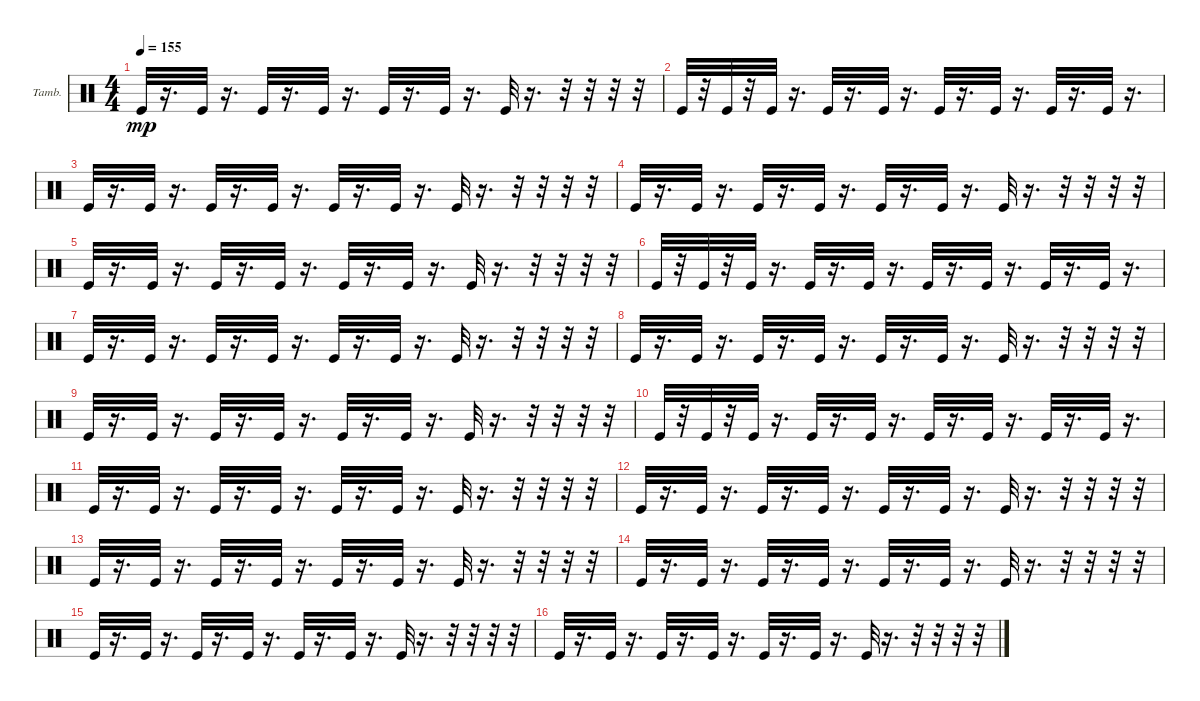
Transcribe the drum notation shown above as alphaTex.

\bracketExtendMode groupsimilarinstruments
\firstSystemTrackNameOrientation horizontal
\otherSystemsTrackNameOrientation horizontal
\track ("Е. Кулаков" "Tamb.") {instrument percussion}
\staff {score}
\articulation defaults
\ts (4 4)
\tempo 155
\clef neutral
\ks c "Kick (hit)".32{dy mp}
r.16{d} "Kick (hit)".32 r.16{d} "Kick (hit)".32 r.16{d} "Kick (hit)".32 r.16{d} "Kick (hit)".32 r.16{d} "Kick (hit)".32 r.16{d} "Kick (hit)".32 r.16{d} r.32 r.32 r.32 r.32 |
"Kick (hit)".32 r.32 "Kick (hit)".32 r.32 "Kick (hit)".32 r.16{d} "Kick (hit)".32 r.16{d} "Kick (hit)".32 r.16{d} "Kick (hit)".32 r.16{d} "Kick (hit)".32 r.16{d} "Kick (hit)".32 r.16{d} "Kick (hit)".32 r.16{d} |
"Kick (hit)".32 r.16{d} "Kick (hit)".32 r.16{d} "Kick (hit)".32 r.16{d} "Kick (hit)".32 r.16{d} "Kick (hit)".32 r.16{d} "Kick (hit)".32 r.16{d} "Kick (hit)".32 r.16{d} r.32 r.32 r.32 r.32 |
"Kick (hit)".32 r.16{d} "Kick (hit)".32 r.16{d} "Kick (hit)".32 r.16{d} "Kick (hit)".32 r.16{d} "Kick (hit)".32 r.16{d} "Kick (hit)".32 r.16{d} "Kick (hit)".32 r.16{d} r.32 r.32 r.32 r.32 |
"Kick (hit)".32 r.16{d} "Kick (hit)".32 r.16{d} "Kick (hit)".32 r.16{d} "Kick (hit)".32 r.16{d} "Kick (hit)".32 r.16{d} "Kick (hit)".32 r.16{d} "Kick (hit)".32 r.16{d} r.32 r.32 r.32 r.32 |
"Kick (hit)".32 r.32 "Kick (hit)".32 r.32 "Kick (hit)".32 r.16{d} "Kick (hit)".32 r.16{d} "Kick (hit)".32 r.16{d} "Kick (hit)".32 r.16{d} "Kick (hit)".32 r.16{d} "Kick (hit)".32 r.16{d} "Kick (hit)".32 r.16{d} |
"Kick (hit)".32 r.16{d} "Kick (hit)".32 r.16{d} "Kick (hit)".32 r.16{d} "Kick (hit)".32 r.16{d} "Kick (hit)".32 r.16{d} "Kick (hit)".32 r.16{d} "Kick (hit)".32 r.16{d} r.32 r.32 r.32 r.32 |
"Kick (hit)".32 r.16{d} "Kick (hit)".32 r.16{d} "Kick (hit)".32 r.16{d} "Kick (hit)".32 r.16{d} "Kick (hit)".32 r.16{d} "Kick (hit)".32 r.16{d} "Kick (hit)".32 r.16{d} r.32 r.32 r.32 r.32 |
"Kick (hit)".32 r.16{d} "Kick (hit)".32 r.16{d} "Kick (hit)".32 r.16{d} "Kick (hit)".32 r.16{d} "Kick (hit)".32 r.16{d} "Kick (hit)".32 r.16{d} "Kick (hit)".32 r.16{d} r.32 r.32 r.32 r.32 |
"Kick (hit)".32 r.32 "Kick (hit)".32 r.32 "Kick (hit)".32 r.16{d} "Kick (hit)".32 r.16{d} "Kick (hit)".32 r.16{d} "Kick (hit)".32 r.16{d} "Kick (hit)".32 r.16{d} "Kick (hit)".32 r.16{d} "Kick (hit)".32 r.16{d} |
"Kick (hit)".32 r.16{d} "Kick (hit)".32 r.16{d} "Kick (hit)".32 r.16{d} "Kick (hit)".32 r.16{d} "Kick (hit)".32 r.16{d} "Kick (hit)".32 r.16{d} "Kick (hit)".32 r.16{d} r.32 r.32 r.32 r.32 |
"Kick (hit)".32 r.16{d} "Kick (hit)".32 r.16{d} "Kick (hit)".32 r.16{d} "Kick (hit)".32 r.16{d} "Kick (hit)".32 r.16{d} "Kick (hit)".32 r.16{d} "Kick (hit)".32 r.16{d} r.32 r.32 r.32 r.32 |
"Kick (hit)".32 r.16{d} "Kick (hit)".32 r.16{d} "Kick (hit)".32 r.16{d} "Kick (hit)".32 r.16{d} "Kick (hit)".32 r.16{d} "Kick (hit)".32 r.16{d} "Kick (hit)".32 r.16{d} r.32 r.32 r.32 r.32 |
"Kick (hit)".32 r.16{d} "Kick (hit)".32 r.16{d} "Kick (hit)".32 r.16{d} "Kick (hit)".32 r.16{d} "Kick (hit)".32 r.16{d} "Kick (hit)".32 r.16{d} "Kick (hit)".32 r.16{d} r.32 r.32 r.32 r.32 |
"Kick (hit)".32 r.16{d} "Kick (hit)".32 r.16{d} "Kick (hit)".32 r.16{d} "Kick (hit)".32 r.16{d} "Kick (hit)".32 r.16{d} "Kick (hit)".32 r.16{d} "Kick (hit)".32 r.16{d} r.32 r.32 r.32 r.32 |
"Kick (hit)".32 r.16{d} "Kick (hit)".32 r.16{d} "Kick (hit)".32 r.16{d} "Kick (hit)".32 r.16{d} "Kick (hit)".32 r.16{d} "Kick (hit)".32 r.16{d} "Kick (hit)".32 r.16{d} r.32 r.32 r.32 r.32
